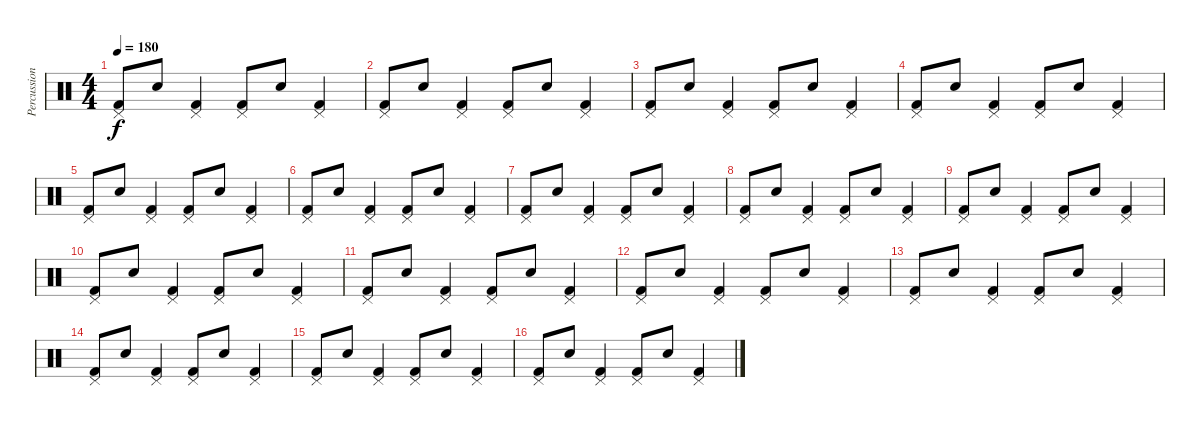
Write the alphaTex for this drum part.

\track ("Percussion" "Percussion") {instrument percussion}
\staff {score}
\articulation defaults
\ts (4 4)
\tempo 180
\clef neutral
\ks c
("Pedal Hi-Hat (hit)" "Kick (hit) 2").8{dy f} "Electric Snare (hit)".8 ("Pedal Hi-Hat (hit)" "Kick (hit) 2").4 ("Pedal Hi-Hat (hit)" "Kick (hit) 2").8 "Electric Snare (hit)".8 ("Pedal Hi-Hat (hit)" "Kick (hit) 2").4 |
("Pedal Hi-Hat (hit)" "Kick (hit) 2").8 "Electric Snare (hit)".8 ("Pedal Hi-Hat (hit)" "Kick (hit) 2").4 ("Pedal Hi-Hat (hit)" "Kick (hit) 2").8 "Electric Snare (hit)".8 ("Pedal Hi-Hat (hit)" "Kick (hit) 2").4 |
("Pedal Hi-Hat (hit)" "Kick (hit) 2").8 "Electric Snare (hit)".8 ("Pedal Hi-Hat (hit)" "Kick (hit) 2").4 ("Pedal Hi-Hat (hit)" "Kick (hit) 2").8 "Electric Snare (hit)".8 ("Pedal Hi-Hat (hit)" "Kick (hit) 2").4 |
("Pedal Hi-Hat (hit)" "Kick (hit) 2").8 "Electric Snare (hit)".8 ("Pedal Hi-Hat (hit)" "Kick (hit) 2").4 ("Pedal Hi-Hat (hit)" "Kick (hit) 2").8 "Electric Snare (hit)".8 ("Pedal Hi-Hat (hit)" "Kick (hit) 2").4 |
("Pedal Hi-Hat (hit)" "Kick (hit) 2").8 "Electric Snare (hit)".8 ("Pedal Hi-Hat (hit)" "Kick (hit) 2").4 ("Pedal Hi-Hat (hit)" "Kick (hit) 2").8 "Electric Snare (hit)".8 ("Pedal Hi-Hat (hit)" "Kick (hit) 2").4 |
("Pedal Hi-Hat (hit)" "Kick (hit) 2").8 "Electric Snare (hit)".8 ("Pedal Hi-Hat (hit)" "Kick (hit) 2").4 ("Pedal Hi-Hat (hit)" "Kick (hit) 2").8 "Electric Snare (hit)".8 ("Pedal Hi-Hat (hit)" "Kick (hit) 2").4 |
("Pedal Hi-Hat (hit)" "Kick (hit) 2").8 "Electric Snare (hit)".8 ("Pedal Hi-Hat (hit)" "Kick (hit) 2").4 ("Pedal Hi-Hat (hit)" "Kick (hit) 2").8 "Electric Snare (hit)".8 ("Pedal Hi-Hat (hit)" "Kick (hit) 2").4 |
("Pedal Hi-Hat (hit)" "Kick (hit) 2").8 "Electric Snare (hit)".8 ("Pedal Hi-Hat (hit)" "Kick (hit) 2").4 ("Pedal Hi-Hat (hit)" "Kick (hit) 2").8 "Electric Snare (hit)".8 ("Pedal Hi-Hat (hit)" "Kick (hit) 2").4 |
("Pedal Hi-Hat (hit)" "Kick (hit) 2").8 "Electric Snare (hit)".8 ("Pedal Hi-Hat (hit)" "Kick (hit) 2").4 ("Pedal Hi-Hat (hit)" "Kick (hit) 2").8 "Electric Snare (hit)".8 ("Pedal Hi-Hat (hit)" "Kick (hit) 2").4 |
("Pedal Hi-Hat (hit)" "Kick (hit) 2").8 "Electric Snare (hit)".8 ("Pedal Hi-Hat (hit)" "Kick (hit) 2").4 ("Pedal Hi-Hat (hit)" "Kick (hit) 2").8 "Electric Snare (hit)".8 ("Pedal Hi-Hat (hit)" "Kick (hit) 2").4 |
("Pedal Hi-Hat (hit)" "Kick (hit) 2").8 "Electric Snare (hit)".8 ("Pedal Hi-Hat (hit)" "Kick (hit) 2").4 ("Pedal Hi-Hat (hit)" "Kick (hit) 2").8 "Electric Snare (hit)".8 ("Pedal Hi-Hat (hit)" "Kick (hit) 2").4 |
("Pedal Hi-Hat (hit)" "Kick (hit) 2").8 "Electric Snare (hit)".8 ("Pedal Hi-Hat (hit)" "Kick (hit) 2").4 ("Pedal Hi-Hat (hit)" "Kick (hit) 2").8 "Electric Snare (hit)".8 ("Pedal Hi-Hat (hit)" "Kick (hit) 2").4 |
("Pedal Hi-Hat (hit)" "Kick (hit) 2").8 "Electric Snare (hit)".8 ("Pedal Hi-Hat (hit)" "Kick (hit) 2").4 ("Pedal Hi-Hat (hit)" "Kick (hit) 2").8 "Electric Snare (hit)".8 ("Pedal Hi-Hat (hit)" "Kick (hit) 2").4 |
("Pedal Hi-Hat (hit)" "Kick (hit) 2").8 "Electric Snare (hit)".8 ("Pedal Hi-Hat (hit)" "Kick (hit) 2").4 ("Pedal Hi-Hat (hit)" "Kick (hit) 2").8 "Electric Snare (hit)".8 ("Pedal Hi-Hat (hit)" "Kick (hit) 2").4 |
("Pedal Hi-Hat (hit)" "Kick (hit) 2").8 "Electric Snare (hit)".8 ("Pedal Hi-Hat (hit)" "Kick (hit) 2").4 ("Pedal Hi-Hat (hit)" "Kick (hit) 2").8 "Electric Snare (hit)".8 ("Pedal Hi-Hat (hit)" "Kick (hit) 2").4 |
("Pedal Hi-Hat (hit)" "Kick (hit) 2").8 "Electric Snare (hit)".8 ("Pedal Hi-Hat (hit)" "Kick (hit) 2").4 ("Pedal Hi-Hat (hit)" "Kick (hit) 2").8 "Electric Snare (hit)".8 ("Pedal Hi-Hat (hit)" "Kick (hit) 2").4
